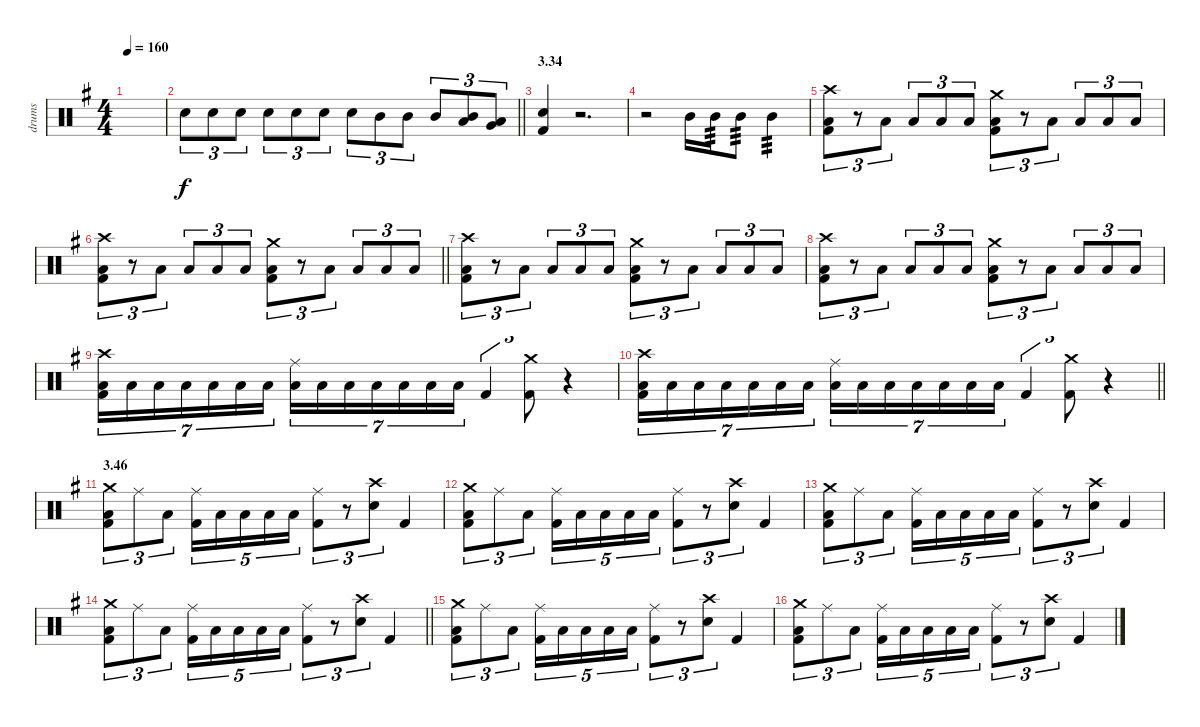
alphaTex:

\track ("drums" "drums") {instrument percussion}
\staff {score}
\articulation defaults
\ts (4 4)
\tempo 160
\clef neutral
\ks g
|
\barLineRight lightlight "Electric Snare (hit)".8{tu (3 2)} "Electric Snare (hit)".8{tu (3 2)} "Electric Snare (hit)".8{tu (3 2)} "Electric Snare (hit)".8{tu (3 2)} "Electric Snare (hit)".8{tu (3 2)} "Electric Snare (hit)".8{tu (3 2)} "Electric Snare (hit)".8{tu (3 2)} "Mid Tom (hit)".8{tu (3 2)} "Mid Tom (hit)".8{tu (3 2)} "Mid Tom (hit)".8{tu (3 2)}
("Mid Tom (hit)" "Low Tom (hit)").8{tu (3 2)} ("Low Tom (hit)" "Very Low Tom (hit)").8{tu (3 2)} |
\section ("" "3.34")
("Electric Snare (hit)" "Kick (hit) 2").4 r.2{d} |
r.2 "Mid Tom (hit)".16 "Mid Tom (hit)".16{tp 3} "Mid Tom (hit)".8{tp 3} "Mid Tom (hit)".4{tp 3} |
("Crash high (hit)" "Low Tom (hit)" "Kick (hit) 2").8{tu (3 2)} r.8{tu (3 2)} "Low Tom (hit)".8{tu (3 2)} "Low Tom (hit)".8{tu (3 2)} "Low Tom (hit)".8{tu (3 2)} "Low Tom (hit)".8{tu (3 2)} ("Crash medium (hit)" "Low Tom (hit)" "Kick (hit) 2").8{tu (3 2)} r.8{tu (3 2)} "Low Tom (hit)".8{tu (3 2)} "Low Tom (hit)".8{tu (3 2)} "Low Tom (hit)".8{tu (3 2)} "Low Tom (hit)".8{tu (3 2)} |
\barLineRight lightlight
("Crash high (hit)" "Low Tom (hit)" "Kick (hit) 2").8{tu (3 2)} r.8{tu (3 2)} "Low Tom (hit)".8{tu (3 2)} "Low Tom (hit)".8{tu (3 2)} "Low Tom (hit)".8{tu (3 2)} "Low Tom (hit)".8{tu (3 2)} ("Crash medium (hit)" "Low Tom (hit)" "Kick (hit) 2").8{tu (3 2)} r.8{tu (3 2)} "Low Tom (hit)".8{tu (3 2)} "Low Tom (hit)".8{tu (3 2)} "Low Tom (hit)".8{tu (3 2)} "Low Tom (hit)".8{tu (3 2)} |
("Crash high (hit)" "Low Tom (hit)" "Kick (hit) 2").8{tu (3 2)} r.8{tu (3 2)} "Low Tom (hit)".8{tu (3 2)} "Low Tom (hit)".8{tu (3 2)} "Low Tom (hit)".8{tu (3 2)} "Low Tom (hit)".8{tu (3 2)} ("Crash medium (hit)" "Low Tom (hit)" "Kick (hit) 2").8{tu (3 2)} r.8{tu (3 2)} "Low Tom (hit)".8{tu (3 2)} "Low Tom (hit)".8{tu (3 2)} "Low Tom (hit)".8{tu (3 2)} "Low Tom (hit)".8{tu (3 2)} |
("Crash high (hit)" "Low Tom (hit)" "Kick (hit) 2").8{tu (3 2)} r.8{tu (3 2)} "Low Tom (hit)".8{tu (3 2)} "Low Tom (hit)".8{tu (3 2)} "Low Tom (hit)".8{tu (3 2)} "Low Tom (hit)".8{tu (3 2)} ("Crash medium (hit)" "Low Tom (hit)" "Kick (hit) 2").8{tu (3 2)} r.8{tu (3 2)} "Low Tom (hit)".8{tu (3 2)} "Low Tom (hit)".8{tu (3 2)} "Low Tom (hit)".8{tu (3 2)} "Low Tom (hit)".8{tu (3 2)} |
("Crash high (hit)" "Low Tom (hit)" "Kick (hit) 2").16{tu (7 4)} "Low Tom (hit)".16{tu (7 4)} "Low Tom (hit)".16{tu (7 4)} "Low Tom (hit)".16{tu (7 4)} "Low Tom (hit)".16{tu (7 4)} "Low Tom (hit)".16{tu (7 4)} "Low Tom (hit)".16{tu (7 4)} ("Ride (middle)" "Low Tom (hit)").16{tu (7 4)} "Low Tom (hit)".16{tu (7 4)} "Low Tom (hit)".16{tu (7 4)} "Low Tom (hit)".16{tu (7 4)} "Low Tom (hit)".16{tu (7 4)} "Low Tom (hit)".16{tu (7 4)} "Low Tom (hit)".16{tu (7 4)} "Kick (hit) 2".4{tu (3 2)} ("Crash medium (hit)" "Kick (hit) 2").8{tu (3 2)} r.4 |
\barLineRight lightlight
("Crash high (hit)" "Low Tom (hit)" "Kick (hit) 2").16{tu (7 4)} "Low Tom (hit)".16{tu (7 4)} "Low Tom (hit)".16{tu (7 4)} "Low Tom (hit)".16{tu (7 4)} "Low Tom (hit)".16{tu (7 4)} "Low Tom (hit)".16{tu (7 4)} "Low Tom (hit)".16{tu (7 4)} ("Ride (middle)" "Low Tom (hit)").16{tu (7 4)} "Low Tom (hit)".16{tu (7 4)} "Low Tom (hit)".16{tu (7 4)} "Low Tom (hit)".16{tu (7 4)} "Low Tom (hit)".16{tu (7 4)} "Low Tom (hit)".16{tu (7 4)} "Low Tom (hit)".16{tu (7 4)} "Kick (hit) 2".4{tu (3 2)} ("Crash medium (hit)" "Kick (hit) 2").8{tu (3 2)} r.4 |
\section ("" "3.46")
("Crash medium (hit)" "Low Tom (hit)" "Kick (hit) 2").8{tu (3 2)} "Ride (middle)".8{tu (3 2)} "Low Tom (hit)".8{tu (3 2)} ("Ride (middle)" "Kick (hit) 2").16{tu (5 4)} "Low Tom (hit)".16{tu (5 4)} "Low Tom (hit)".16{tu (5 4)} "Low Tom (hit)".16{tu (5 4)} "Low Tom (hit)".16{tu (5 4)} ("Ride (middle)" "Kick (hit) 2").8{tu (3 2)} r.8{tu (3 2)} ("Crash high (hit)" "Electric Snare (hit)").8{tu (3 2)} "Kick (hit) 2".4 |
("Crash medium (hit)" "Low Tom (hit)" "Kick (hit) 2").8{tu (3 2)} "Ride (middle)".8{tu (3 2)} "Low Tom (hit)".8{tu (3 2)} ("Ride (middle)" "Kick (hit) 2").16{tu (5 4)} "Low Tom (hit)".16{tu (5 4)} "Low Tom (hit)".16{tu (5 4)} "Low Tom (hit)".16{tu (5 4)} "Low Tom (hit)".16{tu (5 4)} ("Ride (middle)" "Kick (hit) 2").8{tu (3 2)} r.8{tu (3 2)} ("Crash high (hit)" "Electric Snare (hit)").8{tu (3 2)} "Kick (hit) 2".4 |
("Crash medium (hit)" "Low Tom (hit)" "Kick (hit) 2").8{tu (3 2)} "Ride (middle)".8{tu (3 2)} "Low Tom (hit)".8{tu (3 2)} ("Ride (middle)" "Kick (hit) 2").16{tu (5 4)} "Low Tom (hit)".16{tu (5 4)} "Low Tom (hit)".16{tu (5 4)} "Low Tom (hit)".16{tu (5 4)} "Low Tom (hit)".16{tu (5 4)} ("Ride (middle)" "Kick (hit) 2").8{tu (3 2)} r.8{tu (3 2)} ("Crash high (hit)" "Electric Snare (hit)").8{tu (3 2)} "Kick (hit) 2".4 |
\barLineRight lightlight
("Crash medium (hit)" "Low Tom (hit)" "Kick (hit) 2").8{tu (3 2)} "Ride (middle)".8{tu (3 2)} "Low Tom (hit)".8{tu (3 2)} ("Ride (middle)" "Kick (hit) 2").16{tu (5 4)} "Low Tom (hit)".16{tu (5 4)} "Low Tom (hit)".16{tu (5 4)} "Low Tom (hit)".16{tu (5 4)} "Low Tom (hit)".16{tu (5 4)} ("Ride (middle)" "Kick (hit) 2").8{tu (3 2)} r.8{tu (3 2)} ("Crash high (hit)" "Electric Snare (hit)").8{tu (3 2)} "Kick (hit) 2".4 |
("Crash medium (hit)" "Low Tom (hit)" "Kick (hit) 2").8{tu (3 2)} "Ride (middle)".8{tu (3 2)} "Low Tom (hit)".8{tu (3 2)} ("Ride (middle)" "Kick (hit) 2").16{tu (5 4)} "Low Tom (hit)".16{tu (5 4)} "Low Tom (hit)".16{tu (5 4)} "Low Tom (hit)".16{tu (5 4)} "Low Tom (hit)".16{tu (5 4)} ("Ride (middle)" "Kick (hit) 2").8{tu (3 2)} r.8{tu (3 2)} ("Crash high (hit)" "Electric Snare (hit)").8{tu (3 2)} "Kick (hit) 2".4 |
("Crash medium (hit)" "Low Tom (hit)" "Kick (hit) 2").8{tu (3 2)} "Ride (middle)".8{tu (3 2)} "Low Tom (hit)".8{tu (3 2)} ("Ride (middle)" "Kick (hit) 2").16{tu (5 4)} "Low Tom (hit)".16{tu (5 4)} "Low Tom (hit)".16{tu (5 4)} "Low Tom (hit)".16{tu (5 4)} "Low Tom (hit)".16{tu (5 4)} ("Ride (middle)" "Kick (hit) 2").8{tu (3 2)} r.8{tu (3 2)} ("Crash high (hit)" "Electric Snare (hit)").8{tu (3 2)} "Kick (hit) 2".4
